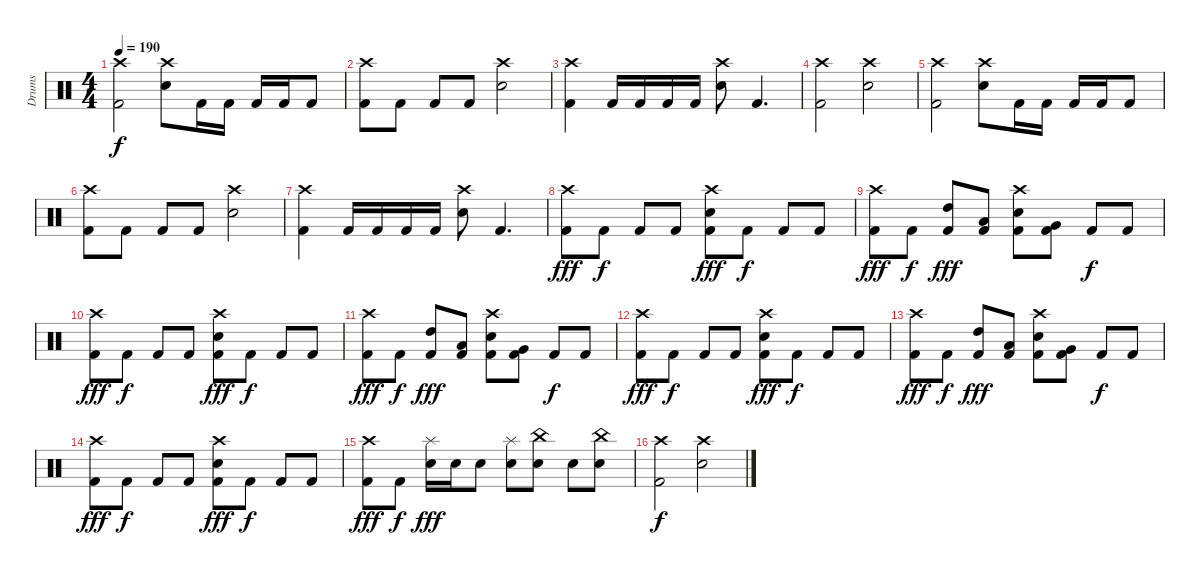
\track ("Drums" "Drums") {instrument percussion}
\staff {score}
\articulation defaults
\ts (4 4)
\tempo 190
\clef neutral
\ks c
("Crash high (hit)" "Kick (hit) 2").2{dy f} ("Crash high (hit)" "Electric Snare (hit)").8 "Kick (hit) 2".16 "Kick (hit) 2".16 "Kick (hit) 2".16 "Kick (hit) 2".16 "Kick (hit) 2".8 |
("Crash high (hit)" "Kick (hit) 2").8 "Kick (hit) 2".8 "Kick (hit) 2".8 "Kick (hit) 2".8 ("Crash high (hit)" "Electric Snare (hit)").2 |
("Crash high (hit)" "Kick (hit) 2").4 "Kick (hit) 2".16 "Kick (hit) 2".16 "Kick (hit) 2".16 "Kick (hit) 2".16 ("Crash high (hit)" "Electric Snare (hit)").8 "Kick (hit) 2".4{d} |
("Crash high (hit)" "Kick (hit) 2").2 ("Crash high (hit)" "Electric Snare (hit)").2 |
("Crash high (hit)" "Kick (hit) 2").2 ("Crash high (hit)" "Electric Snare (hit)").8 "Kick (hit) 2".16 "Kick (hit) 2".16 "Kick (hit) 2".16 "Kick (hit) 2".16 "Kick (hit) 2".8 |
("Crash high (hit)" "Kick (hit) 2").8 "Kick (hit) 2".8 "Kick (hit) 2".8 "Kick (hit) 2".8 ("Crash high (hit)" "Electric Snare (hit)").2 |
("Crash high (hit)" "Kick (hit) 2").4 "Kick (hit) 2".16 "Kick (hit) 2".16 "Kick (hit) 2".16 "Kick (hit) 2".16 ("Crash high (hit)" "Electric Snare (hit)").8 "Kick (hit) 2".4{d} |
("Crash high (hit)" "Kick (hit) 2").8{dy fff} "Kick (hit) 2".8{dy f} "Kick (hit) 2".8 "Kick (hit) 2".8 ("Crash high (hit)" "Electric Snare (hit)" "Kick (hit) 2").8{dy fff} "Kick (hit) 2".8{dy f} "Kick (hit) 2".8 "Kick (hit) 2".8 |
("Crash high (hit)" "Kick (hit) 2").8{dy fff} "Kick (hit) 2".8{dy f} ("High Tom (hit)" "Kick (hit) 2").8{dy fff} ("Low Tom (hit)" "Kick (hit) 2").8 ("Crash high (hit)" "Electric Snare (hit)" "Kick (hit) 2").8 ("Very Low Tom (hit)" "Kick (hit) 2").8 "Kick (hit) 2".8{dy f} "Kick (hit) 2".8 |
("Crash high (hit)" "Kick (hit) 2").8{dy fff} "Kick (hit) 2".8{dy f} "Kick (hit) 2".8 "Kick (hit) 2".8 ("Crash high (hit)" "Electric Snare (hit)" "Kick (hit) 2").8{dy fff} "Kick (hit) 2".8{dy f} "Kick (hit) 2".8 "Kick (hit) 2".8 |
("Crash high (hit)" "Kick (hit) 2").8{dy fff} "Kick (hit) 2".8{dy f} ("High Tom (hit)" "Kick (hit) 2").8{dy fff} ("Low Tom (hit)" "Kick (hit) 2").8 ("Crash high (hit)" "Electric Snare (hit)" "Kick (hit) 2").8 ("Very Low Tom (hit)" "Kick (hit) 2").8 "Kick (hit) 2".8{dy f} "Kick (hit) 2".8 |
("Crash high (hit)" "Kick (hit) 2").8{dy fff} "Kick (hit) 2".8{dy f} "Kick (hit) 2".8 "Kick (hit) 2".8 ("Crash high (hit)" "Electric Snare (hit)" "Kick (hit) 2").8{dy fff} "Kick (hit) 2".8{dy f} "Kick (hit) 2".8 "Kick (hit) 2".8 |
("Crash high (hit)" "Kick (hit) 2").8{dy fff} "Kick (hit) 2".8{dy f} ("High Tom (hit)" "Kick (hit) 2").8{dy fff} ("Low Tom (hit)" "Kick (hit) 2").8 ("Crash high (hit)" "Electric Snare (hit)" "Kick (hit) 2").8 ("Very Low Tom (hit)" "Kick (hit) 2").8 "Kick (hit) 2".8{dy f} "Kick (hit) 2".8 |
("Crash high (hit)" "Kick (hit) 2").8{dy fff} "Kick (hit) 2".8{dy f} "Kick (hit) 2".8 "Kick (hit) 2".8 ("Crash high (hit)" "Electric Snare (hit)" "Kick (hit) 2").8{dy fff} "Kick (hit) 2".8{dy f} "Kick (hit) 2".8 "Kick (hit) 2".8 |
("Crash high (hit)" "Kick (hit) 2").8{dy fff} "Kick (hit) 2".8{dy f} ("Splash (hit)" "Electric Snare (hit)").16{dy fff} "Electric Snare (hit)".16 "Electric Snare (hit)".8 ("Splash (hit)" "Electric Snare (hit)").8 ("China (hit)" "Electric Snare (hit)").8 "Electric Snare (hit)".8 ("China (hit)" "Electric Snare (hit)").8 |
("Crash high (hit)" "Kick (hit) 2").2{dy f} ("Crash high (hit)" "Electric Snare (hit)").2
